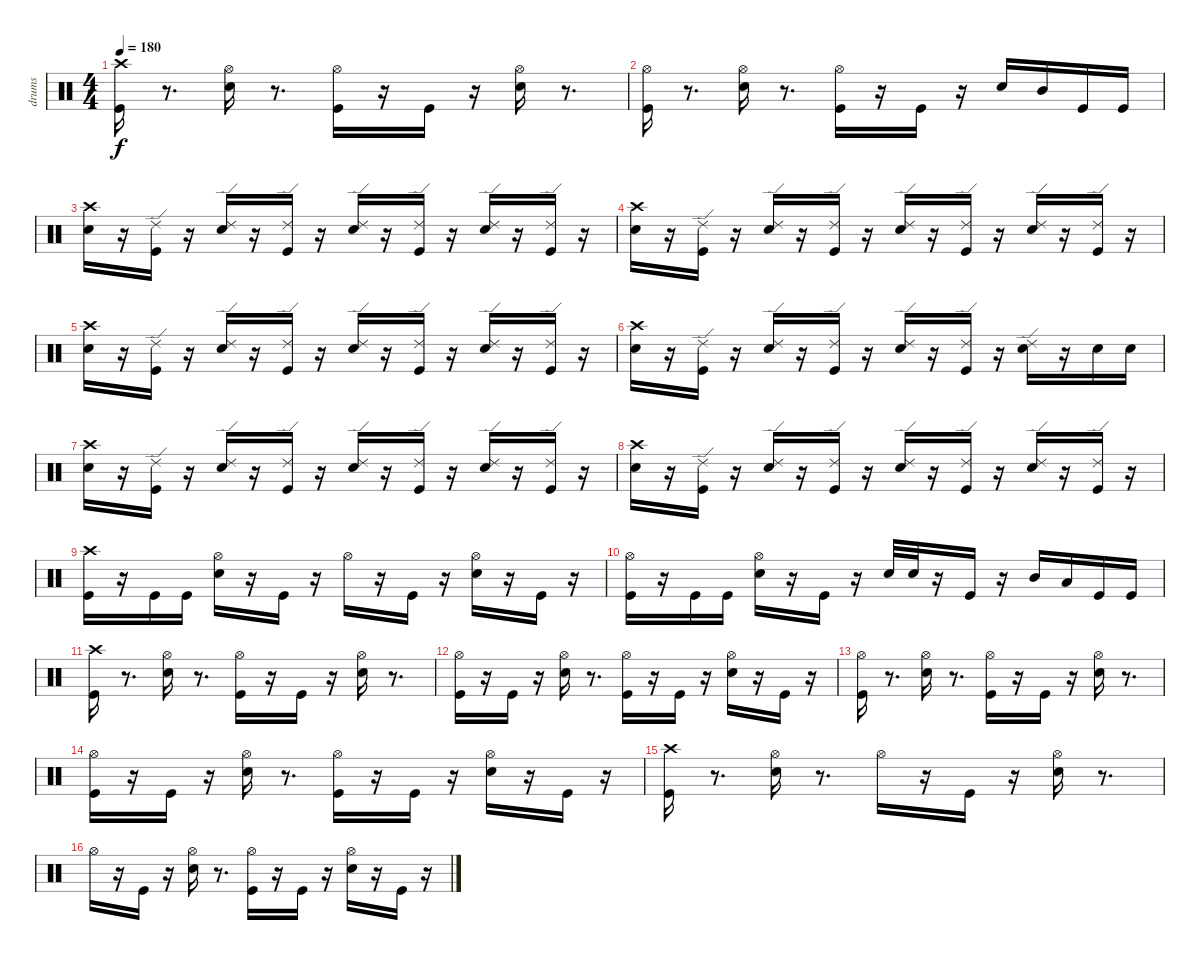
\track ("drums" "drums") {instrument percussion}
\staff {score}
\articulation defaults
\ts (4 4)
\tempo 180
\clef neutral
\ks c
("Crash high (hit)" "Kick (hit)").16{dy f} r.8{d} ("Hi-Hat (open)" "Snare (hit) 2").16 r.8{d} ("Hi-Hat (open)" "Kick (hit)").16 r.16 "Kick (hit)".16 r.16 ("Hi-Hat (open)" "Snare (hit) 2").16 r.8{d} |
("Hi-Hat (open)" "Kick (hit)").16 r.8{d} ("Hi-Hat (open)" "Snare (hit) 2").16 r.8{d} ("Hi-Hat (open)" "Kick (hit)").16 r.16 "Kick (hit)".16 r.16 "Snare (hit) 2".16 "Mid Tom (hit)".16 "Kick (hit)".16 "Kick (hit)".16 |
("Crash high (hit)" "Snare (hit) 2").16 r.16 ("Ride (edge) 2" "Kick (hit)").16 r.16 ("Ride (edge) 2" "Snare (hit) 2").16 r.16 ("Ride (edge) 2" "Kick (hit)").16 r.16 ("Ride (edge) 2" "Snare (hit) 2").16 r.16 ("Ride (edge) 2" "Kick (hit)").16 r.16 ("Ride (edge) 2" "Snare (hit) 2").16 r.16 ("Ride (edge) 2" "Kick (hit)").16 r.16 |
("Crash high (hit)" "Snare (hit) 2").16 r.16 ("Ride (edge) 2" "Kick (hit)").16 r.16 ("Ride (edge) 2" "Snare (hit) 2").16 r.16 ("Ride (edge) 2" "Kick (hit)").16 r.16 ("Ride (edge) 2" "Snare (hit) 2").16 r.16 ("Ride (edge) 2" "Kick (hit)").16 r.16 ("Ride (edge) 2" "Snare (hit) 2").16 r.16 ("Ride (edge) 2" "Kick (hit)").16 r.16 |
("Crash high (hit)" "Snare (hit) 2").16 r.16 ("Ride (edge) 2" "Kick (hit)").16 r.16 ("Ride (edge) 2" "Snare (hit) 2").16 r.16 ("Ride (edge) 2" "Kick (hit)").16 r.16 ("Ride (edge) 2" "Snare (hit) 2").16 r.16 ("Ride (edge) 2" "Kick (hit)").16 r.16 ("Ride (edge) 2" "Snare (hit) 2").16 r.16 ("Ride (edge) 2" "Kick (hit)").16 r.16 |
("Crash high (hit)" "Snare (hit) 2").16 r.16 ("Ride (edge) 2" "Kick (hit)").16 r.16 ("Ride (edge) 2" "Snare (hit) 2").16 r.16 ("Ride (edge) 2" "Kick (hit)").16 r.16 ("Ride (edge) 2" "Snare (hit) 2").16 r.16 ("Ride (edge) 2" "Kick (hit)").16 r.16 ("Ride (edge) 2" "Snare (hit) 2").16 r.16 "Snare (hit) 2".16 "Snare (hit) 2".16 |
("Crash high (hit)" "Snare (hit) 2").16 r.16 ("Ride (edge) 2" "Kick (hit)").16 r.16 ("Ride (edge) 2" "Snare (hit) 2").16 r.16 ("Ride (edge) 2" "Kick (hit)").16 r.16 ("Ride (edge) 2" "Snare (hit) 2").16 r.16 ("Ride (edge) 2" "Kick (hit)").16 r.16 ("Ride (edge) 2" "Snare (hit) 2").16 r.16 ("Ride (edge) 2" "Kick (hit)").16 r.16 |
("Crash high (hit)" "Snare (hit) 2").16 r.16 ("Ride (edge) 2" "Kick (hit)").16 r.16 ("Ride (edge) 2" "Snare (hit) 2").16 r.16 ("Ride (edge) 2" "Kick (hit)").16 r.16 ("Ride (edge) 2" "Snare (hit) 2").16 r.16 ("Ride (edge) 2" "Kick (hit)").16 r.16 ("Ride (edge) 2" "Snare (hit) 2").16 r.16 ("Ride (edge) 2" "Kick (hit)").16 r.16 |
("Crash high (hit)" "Kick (hit)").16 r.16 "Kick (hit)".16 "Kick (hit)".16 ("Hi-Hat (open)" "Snare (hit) 2").16 r.16 "Kick (hit)".16 r.16 "Hi-Hat (open)".16 r.16 "Kick (hit)".16 r.16 ("Snare (hit) 2" "Hi-Hat (open)").16 r.16 "Kick (hit)".16 r.16 |
("Hi-Hat (open)" "Kick (hit)").16 r.16 "Kick (hit)".16 "Kick (hit)".16 ("Hi-Hat (open)" "Snare (hit) 2").16 r.16 "Kick (hit)".16 r.16 "Snare (hit) 2".32 "Snare (hit) 2".32 r.16 "Kick (hit)".16 r.16 "Mid Tom (hit)".16 "Low Tom (hit)".16 "Kick (hit)".16 "Kick (hit)".16 |
("Crash high (hit)" "Kick (hit)").16 r.8{d} ("Hi-Hat (open)" "Snare (hit) 2").16 r.8{d} ("Hi-Hat (open)" "Kick (hit)").16 r.16 "Kick (hit)".16 r.16 ("Hi-Hat (open)" "Snare (hit) 2").16 r.8{d} |
("Hi-Hat (open)" "Kick (hit)").16 r.16 "Kick (hit)".16 r.16 ("Hi-Hat (open)" "Snare (hit) 2").16 r.8{d} ("Hi-Hat (open)" "Kick (hit)").16 r.16 "Kick (hit)".16 r.16 ("Hi-Hat (open)" "Snare (hit) 2").16 r.16 "Kick (hit)".16 r.16 |
("Hi-Hat (open)" "Kick (hit)").16 r.8{d} ("Hi-Hat (open)" "Snare (hit) 2").16 r.8{d} ("Hi-Hat (open)" "Kick (hit)").16 r.16 "Kick (hit)".16 r.16 ("Hi-Hat (open)" "Snare (hit) 2").16 r.8{d} |
("Hi-Hat (open)" "Kick (hit)").16 r.16 "Kick (hit)".16 r.16 ("Hi-Hat (open)" "Snare (hit) 2").16 r.8{d} ("Hi-Hat (open)" "Kick (hit)").16 r.16 "Kick (hit)".16 r.16 ("Hi-Hat (open)" "Snare (hit) 2").16 r.16 "Kick (hit)".16 r.16 |
("Crash high (hit)" "Kick (hit)").16 r.8{d} ("Hi-Hat (open)" "Snare (hit) 2").16 r.8{d} "Hi-Hat (open)".16 r.16 "Kick (hit)".16 r.16 ("Hi-Hat (open)" "Snare (hit) 2").16 r.8{d} |
"Hi-Hat (open)".16 r.16 "Kick (hit)".16 r.16 ("Hi-Hat (open)" "Snare (hit) 2").16 r.8{d} ("Kick (hit)" "Hi-Hat (open)").16 r.16 "Kick (hit)".16 r.16 ("Hi-Hat (open)" "Snare (hit) 2").16 r.16 "Kick (hit)".16 r.16
